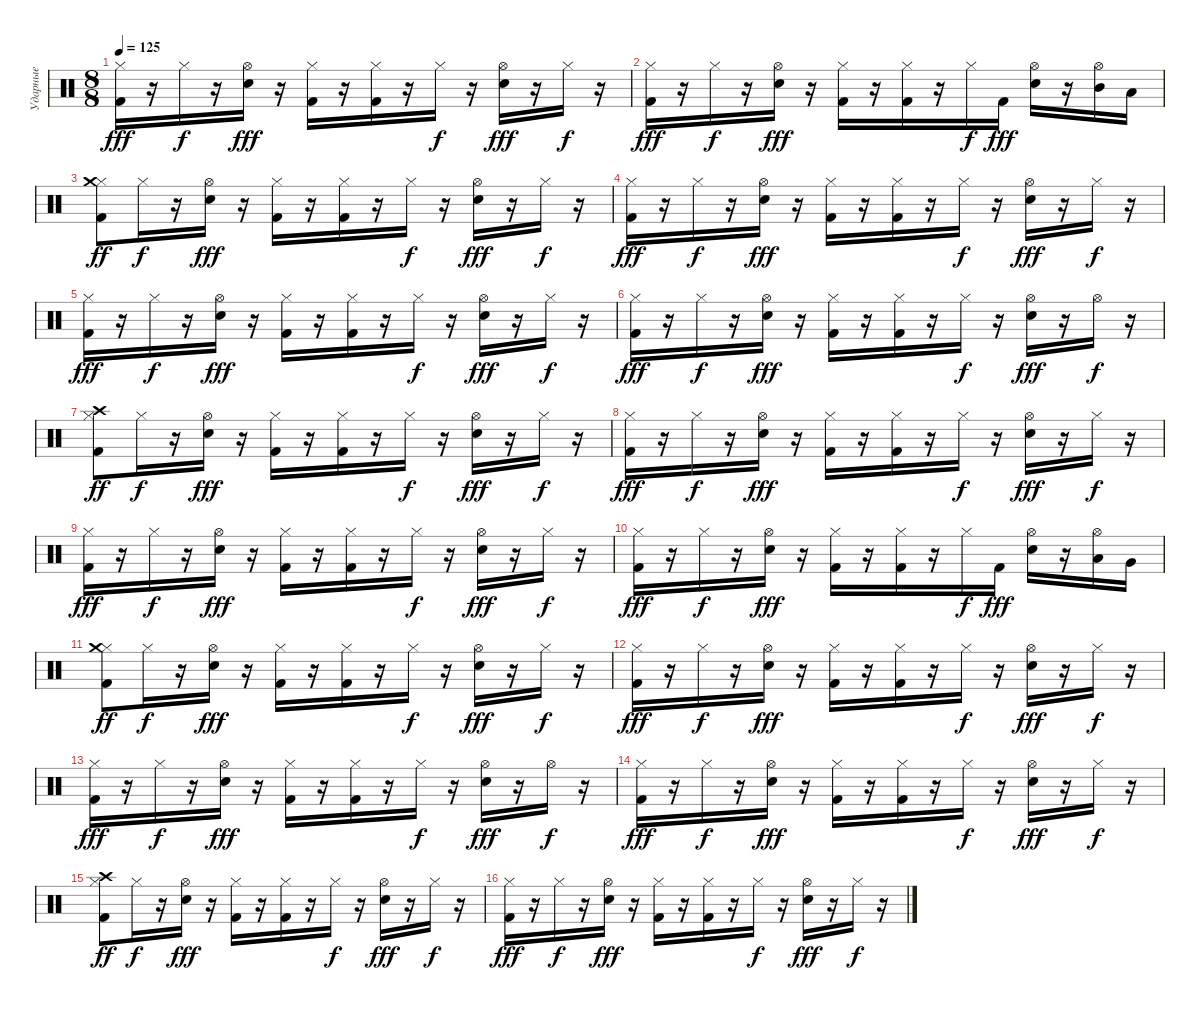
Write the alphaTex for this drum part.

\track ("Ударные" "Ударные") {instrument percussion}
\staff {score}
\articulation defaults
\ts (8 8)
\tempo 125
\clef neutral
\ks c
("Kick (hit) 2" "Hi-Hat (closed)").16{dy fff} r.16 "Hi-Hat (closed)".16{dy f} r.16 ("Hi-Hat (open)" "Snare (hit) 2").16{dy fff} r.16 ("Kick (hit) 2" "Hi-Hat (closed)").16 r.16 ("Kick (hit) 2" "Hi-Hat (closed)").16 r.16 "Hi-Hat (closed)".16{dy f} r.16 ("Hi-Hat (open)" "Snare (hit) 2").16{dy fff} r.16 "Hi-Hat (closed)".16{dy f} r.16 |
("Kick (hit) 2" "Hi-Hat (closed)").16{dy fff} r.16 "Hi-Hat (closed)".16{dy f} r.16 ("Hi-Hat (open)" "Snare (hit) 2").16{dy fff} r.16 ("Kick (hit) 2" "Hi-Hat (closed)").16 r.16 ("Kick (hit) 2" "Hi-Hat (closed)").16 r.16 "Hi-Hat (closed)".16{dy f} "Kick (hit) 2".16{dy fff} ("Hi-Hat (open)" "Snare (hit) 2").16 r.16 ("Hi-Hat (open)" "Mid Tom (hit)").16 "Low Tom (hit)".16 |
("Kick (hit) 2" "Hi-Hat (closed)" "Crash medium (hit)").8{dy ff} "Hi-Hat (closed)".16{dy f} r.16 ("Hi-Hat (open)" "Snare (hit) 2").16{dy fff} r.16 ("Kick (hit) 2" "Hi-Hat (closed)").16 r.16 ("Kick (hit) 2" "Hi-Hat (closed)").16 r.16 "Hi-Hat (closed)".16{dy f} r.16 ("Hi-Hat (open)" "Snare (hit) 2").16{dy fff} r.16 "Hi-Hat (closed)".16{dy f} r.16 |
("Kick (hit) 2" "Hi-Hat (closed)").16{dy fff} r.16 "Hi-Hat (closed)".16{dy f} r.16 ("Hi-Hat (open)" "Snare (hit) 2").16{dy fff} r.16 ("Kick (hit) 2" "Hi-Hat (closed)").16 r.16 ("Kick (hit) 2" "Hi-Hat (closed)").16 r.16 "Hi-Hat (closed)".16{dy f} r.16 ("Hi-Hat (open)" "Snare (hit) 2").16{dy fff} r.16 "Hi-Hat (closed)".16{dy f} r.16 |
("Kick (hit) 2" "Hi-Hat (closed)").16{dy fff} r.16 "Hi-Hat (closed)".16{dy f} r.16 ("Hi-Hat (open)" "Snare (hit) 2").16{dy fff} r.16 ("Kick (hit) 2" "Hi-Hat (closed)").16 r.16 ("Kick (hit) 2" "Hi-Hat (closed)").16 r.16 "Hi-Hat (closed)".16{dy f} r.16 ("Hi-Hat (open)" "Snare (hit) 2").16{dy fff} r.16 "Hi-Hat (closed)".16{dy f} r.16 |
("Kick (hit) 2" "Hi-Hat (closed)").16{dy fff} r.16 "Hi-Hat (closed)".16{dy f} r.16 ("Hi-Hat (open)" "Snare (hit) 2").16{dy fff} r.16 ("Kick (hit) 2" "Hi-Hat (closed)").16 r.16 ("Kick (hit) 2" "Hi-Hat (closed)").16 r.16 "Hi-Hat (closed)".16{dy f} r.16 ("Hi-Hat (open)" "Snare (hit) 2").16{dy fff} r.16 "Hi-Hat (open)".16{dy f} r.16 |
("Kick (hit) 2" "Hi-Hat (closed)" "Crash high (hit)").8{dy ff} "Hi-Hat (closed)".16{dy f} r.16 ("Hi-Hat (open)" "Snare (hit) 2").16{dy fff} r.16 ("Kick (hit) 2" "Hi-Hat (closed)").16 r.16 ("Kick (hit) 2" "Hi-Hat (closed)").16 r.16 "Hi-Hat (closed)".16{dy f} r.16 ("Hi-Hat (open)" "Snare (hit) 2").16{dy fff} r.16 "Hi-Hat (closed)".16{dy f} r.16 |
("Kick (hit) 2" "Hi-Hat (closed)").16{dy fff} r.16 "Hi-Hat (closed)".16{dy f} r.16 ("Hi-Hat (open)" "Snare (hit) 2").16{dy fff} r.16 ("Kick (hit) 2" "Hi-Hat (closed)").16 r.16 ("Kick (hit) 2" "Hi-Hat (closed)").16 r.16 "Hi-Hat (closed)".16{dy f} r.16 ("Hi-Hat (open)" "Snare (hit) 2").16{dy fff} r.16 "Hi-Hat (closed)".16{dy f} r.16 |
("Kick (hit) 2" "Hi-Hat (closed)").16{dy fff} r.16 "Hi-Hat (closed)".16{dy f} r.16 ("Hi-Hat (open)" "Snare (hit) 2").16{dy fff} r.16 ("Kick (hit) 2" "Hi-Hat (closed)").16 r.16 ("Kick (hit) 2" "Hi-Hat (closed)").16 r.16 "Hi-Hat (closed)".16{dy f} r.16 ("Hi-Hat (open)" "Snare (hit) 2").16{dy fff} r.16 "Hi-Hat (closed)".16{dy f} r.16 |
("Kick (hit) 2" "Hi-Hat (closed)").16{dy fff} r.16 "Hi-Hat (closed)".16{dy f} r.16 ("Hi-Hat (open)" "Snare (hit) 2").16{dy fff} r.16 ("Kick (hit) 2" "Hi-Hat (closed)").16 r.16 ("Kick (hit) 2" "Hi-Hat (closed)").16 r.16 "Hi-Hat (closed)".16{dy f} "Kick (hit) 2".16{dy fff} ("Hi-Hat (open)" "Snare (hit) 2").16 r.16 ("Hi-Hat (open)" "Low Tom (hit)").16 "Very Low Tom (hit)".16 |
("Kick (hit) 2" "Hi-Hat (closed)" "Crash medium (hit)").8{dy ff} "Hi-Hat (closed)".16{dy f} r.16 ("Hi-Hat (open)" "Snare (hit) 2").16{dy fff} r.16 ("Kick (hit) 2" "Hi-Hat (closed)").16 r.16 ("Kick (hit) 2" "Hi-Hat (closed)").16 r.16 "Hi-Hat (closed)".16{dy f} r.16 ("Hi-Hat (open)" "Snare (hit) 2").16{dy fff} r.16 "Hi-Hat (closed)".16{dy f} r.16 |
("Kick (hit) 2" "Hi-Hat (closed)").16{dy fff} r.16 "Hi-Hat (closed)".16{dy f} r.16 ("Hi-Hat (open)" "Snare (hit) 2").16{dy fff} r.16 ("Kick (hit) 2" "Hi-Hat (closed)").16 r.16 ("Kick (hit) 2" "Hi-Hat (closed)").16 r.16 "Hi-Hat (closed)".16{dy f} r.16 ("Hi-Hat (open)" "Snare (hit) 2").16{dy fff} r.16 "Hi-Hat (closed)".16{dy f} r.16 |
("Kick (hit) 2" "Hi-Hat (closed)").16{dy fff} r.16 "Hi-Hat (closed)".16{dy f} r.16 ("Hi-Hat (open)" "Snare (hit) 2").16{dy fff} r.16 ("Kick (hit) 2" "Hi-Hat (closed)").16 r.16 ("Kick (hit) 2" "Hi-Hat (closed)").16 r.16 "Hi-Hat (closed)".16{dy f} r.16 ("Hi-Hat (open)" "Snare (hit) 2").16{dy fff} r.16 "Hi-Hat (open)".16{dy f} r.16 |
("Kick (hit) 2" "Hi-Hat (closed)").16{dy fff} r.16 "Hi-Hat (closed)".16{dy f} r.16 ("Hi-Hat (open)" "Snare (hit) 2").16{dy fff} r.16 ("Kick (hit) 2" "Hi-Hat (closed)").16 r.16 ("Kick (hit) 2" "Hi-Hat (closed)").16 r.16 "Hi-Hat (closed)".16{dy f} r.16 ("Hi-Hat (open)" "Snare (hit) 2").16{dy fff} r.16 "Hi-Hat (closed)".16{dy f} r.16 |
("Kick (hit) 2" "Hi-Hat (closed)" "Crash high (hit)").8{dy ff} "Hi-Hat (closed)".16{dy f} r.16 ("Hi-Hat (open)" "Snare (hit) 2").16{dy fff} r.16 ("Kick (hit) 2" "Hi-Hat (closed)").16 r.16 ("Kick (hit) 2" "Hi-Hat (closed)").16 r.16 "Hi-Hat (closed)".16{dy f} r.16 ("Hi-Hat (open)" "Snare (hit) 2").16{dy fff} r.16 "Hi-Hat (closed)".16{dy f} r.16 |
("Kick (hit) 2" "Hi-Hat (closed)").16{dy fff} r.16 "Hi-Hat (closed)".16{dy f} r.16 ("Hi-Hat (open)" "Snare (hit) 2").16{dy fff} r.16 ("Kick (hit) 2" "Hi-Hat (closed)").16 r.16 ("Kick (hit) 2" "Hi-Hat (closed)").16 r.16 "Hi-Hat (closed)".16{dy f} r.16 ("Hi-Hat (open)" "Snare (hit) 2").16{dy fff} r.16 "Hi-Hat (closed)".16{dy f} r.16
